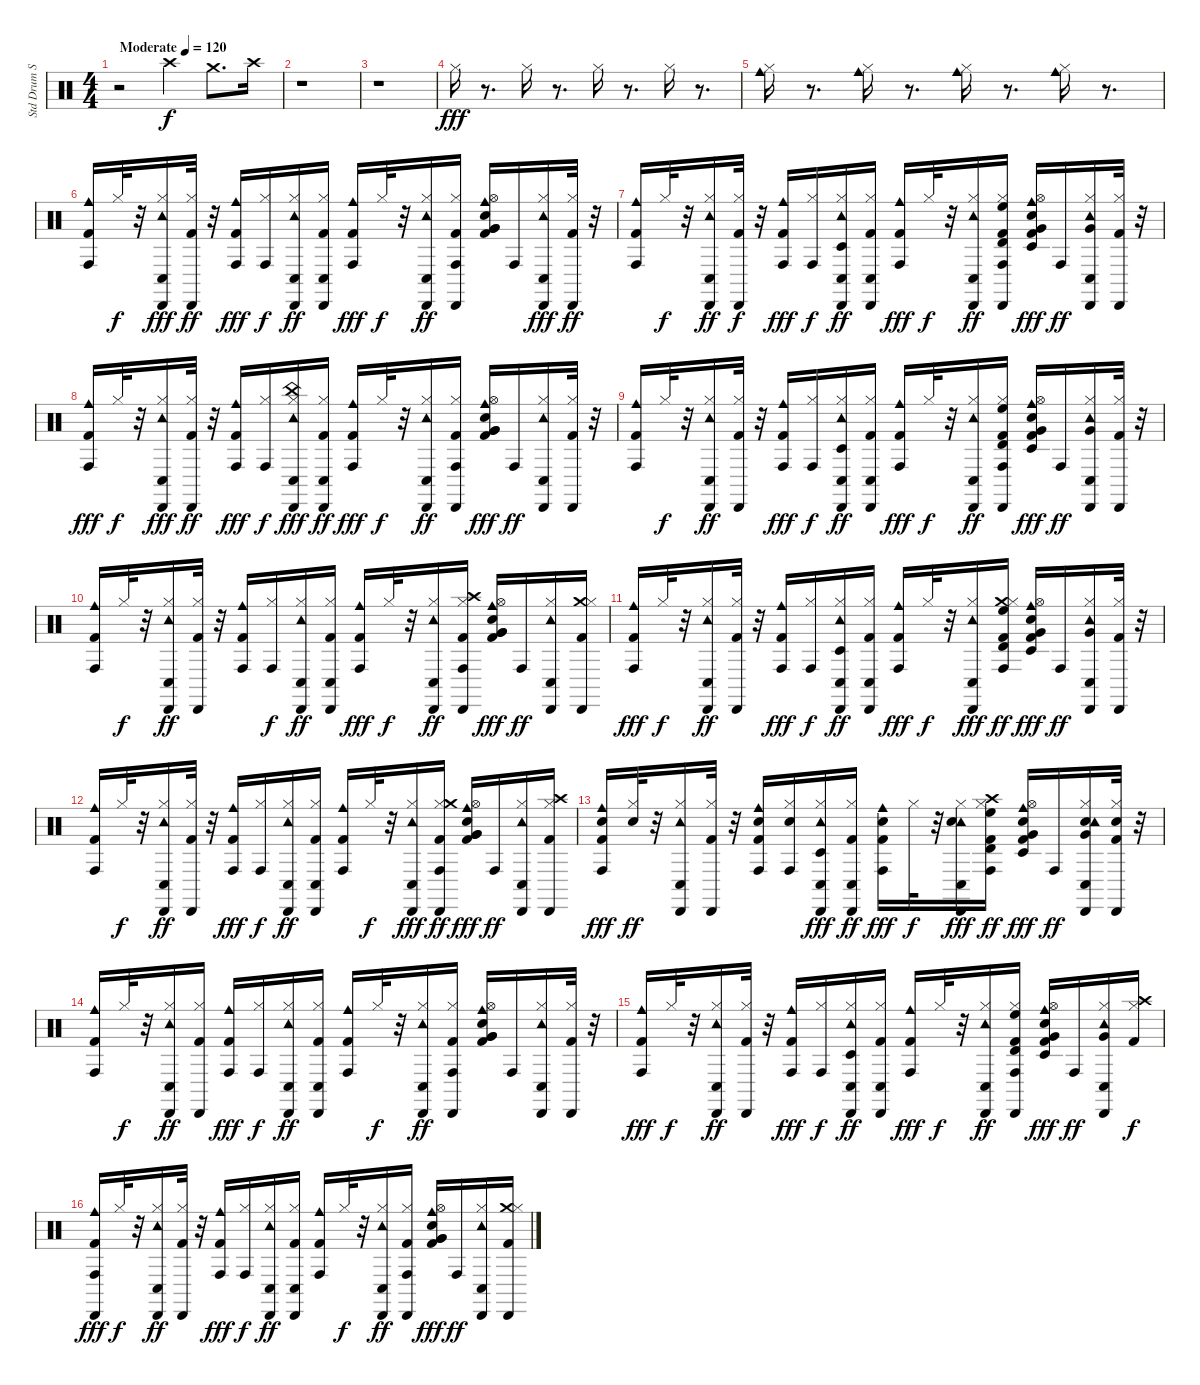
\track ("Std Drum Set" "Std Drum S") {instrument percussion}
\staff {score}
\articulation defaults
\ts (4 4)
\tempo (120 "Moderate")
\clef neutral
\ks c
r.2{dy f} "Crash high (hit)".4 "Crash medium (hit)".8{d} "Crash high (hit)".16 |
r.1 |
r.1 |
"Hi-Hat (closed)".16{dy fff} r.8{d} "Hi-Hat (closed)".16 r.8{d} "Hi-Hat (closed)".16 r.8{d} "Hi-Hat (closed)".16 r.8{d} |
("Hi-Hat (closed)" "Cowbell medium (hit)").16 r.8{d} ("Cowbell medium (hit)" "Hi-Hat (closed)").16 r.8{d} ("Hi-Hat (closed)" "Cowbell medium (hit)").16 r.8{d} ("Cowbell medium (hit)" "Hi-Hat (closed)").16 r.8{d} |
("Cowbell medium (hit)" "Conga high (hit)" "Kick (hit) 2").16 "Hi-Hat (closed)".32{dy f} r.32 ("Hi-Hat (closed)" "Tambourine (hit)" "Conga low (hit)" "Cabasa (hit)").16{dy fff} ("Hi-Hat (closed)" "Kick (hit) 2" "Cabasa (hit)").32{dy ff} r.32 ("Cowbell medium (hit)" "Conga high (hit)" "Kick (hit) 2").16{dy fff} ("Hi-Hat (closed)" "Conga high (hit)").16{dy f} ("Conga low (hit)" "Cabasa (hit)" "Hi-Hat (closed)" "Tambourine (hit)").16{dy ff} ("Conga low (hit)" "Cabasa (hit)" "Hi-Hat (closed)" "Kick (hit) 2").16 ("Kick (hit) 2" "Conga high (hit)" "Cowbell medium (hit)").16{dy fff} "Hi-Hat (closed)".32{dy f} r.32 ("Hi-Hat (closed)" "Conga low (hit)" "Tambourine (hit)" "Cabasa (hit)").16{dy ff} ("Hi-Hat (closed)" "Kick (hit) 2" "Cabasa (hit)" "Conga high (hit)").16 ("Very Low Tom (hit)" "Very Low Tom (hit)" "Hi-Hat (open)" "Kick (hit) 2" "Cowbell medium (hit)" "Electric Snare (hit)").16 "Conga high (hit)".16 ("Hi-Hat (closed)" "Conga low (hit)" "Cabasa (hit)" "Tambourine (hit)").16{dy fff} ("Kick (hit) 2" "Hi-Hat (closed)" "Cabasa (hit)").32{dy ff} r.32 |
("Cowbell medium (hit)" "Kick (hit) 2" "Conga high (hit)").16 "Hi-Hat (closed)".32{dy f} r.32 ("Conga low (hit)" "Cabasa (hit)" "Hi-Hat (closed)" "Tambourine (hit)").16{dy ff} ("Kick (hit) 2" "Hi-Hat (closed)" "Cabasa (hit)").32{dy f} r.32 ("Conga high (hit)" "Cowbell medium (hit)" "Kick (hit) 2").16{dy fff} ("Hi-Hat (closed)" "Conga high (hit)").16{dy f} ("Tambourine (hit)" "Cabasa (hit)" "Conga low (hit)" "Timbale low (hit)" "Hi-Hat (closed)").16{dy ff} ("Hi-Hat (closed)" "Kick (hit) 2" "Conga low (hit)" "Cabasa (hit)").16 ("Conga high (hit)" "Cowbell medium (hit)" "Kick (hit) 2").16{dy fff} "Hi-Hat (closed)".32{dy f} r.32 ("Hi-Hat (closed)" "Cabasa (hit)" "Conga low (hit)" "Tambourine (hit)").16{dy ff} ("Conga high (hit)" "Timbale high (hit)" "High Floor Tom (hit)" "Hi-Hat (closed)" "Kick (hit) 2" "Cabasa (hit)").16 ("Kick (hit) 2" "Hi-Hat (open)" "Cowbell medium (hit)" "Timbale low (hit)" "Electric Snare (hit)" "Very Low Tom (hit)").16{dy fff} "Conga high (hit)".16{dy ff} ("Tambourine (hit)" "Conga low (hit)" "Cabasa (hit)" "Hi-Hat (closed)" "Very Low Tom (hit)").16 ("Hi-Hat (closed)" "Cabasa (hit)" "Kick (hit) 2").32 r.32 |
("Cowbell medium (hit)" "Conga high (hit)" "Kick (hit) 2").16{dy fff} "Hi-Hat (closed)".32{dy f} r.32 ("Hi-Hat (closed)" "Tambourine (hit)" "Conga low (hit)" "Cabasa (hit)").16{dy fff} ("Kick (hit) 2" "Hi-Hat (closed)" "Cabasa (hit)").32{dy ff} r.32 ("Conga high (hit)" "Cowbell medium (hit)" "Kick (hit) 2").16{dy fff} ("Conga high (hit)" "Hi-Hat (closed)").16{dy f} ("Tambourine (hit)" "Hi-Hat (closed)" "Conga low (hit)" "Cabasa (hit)" "China (hit)").16{dy fff} ("Hi-Hat (closed)" "Kick (hit) 2" "Cabasa (hit)" "Conga low (hit)").16{dy ff} ("Kick (hit) 2" "Conga high (hit)" "Cowbell medium (hit)").16{dy fff} "Hi-Hat (closed)".32{dy f} r.32 ("Conga low (hit)" "Cabasa (hit)" "Hi-Hat (closed)" "Tambourine (hit)").16{dy ff} ("Cabasa (hit)" "Conga high (hit)" "Kick (hit) 2" "Hi-Hat (closed)").16 ("Kick (hit) 2" "Very Low Tom (hit)" "Cowbell medium (hit)" "Hi-Hat (open)" "Very Low Tom (hit)" "Electric Snare (hit)").16{dy fff} "Conga high (hit)".16{dy ff} ("Hi-Hat (closed)" "Conga low (hit)" "Cabasa (hit)" "Tambourine (hit)").16 ("Hi-Hat (closed)" "Kick (hit) 2" "Cabasa (hit)").32 r.32 |
("Cowbell medium (hit)" "Kick (hit) 2" "Conga high (hit)").16 "Hi-Hat (closed)".32{dy f} r.32 ("Tambourine (hit)" "Conga low (hit)" "Cabasa (hit)" "Hi-Hat (closed)").16{dy ff} ("Hi-Hat (closed)" "Cabasa (hit)" "Kick (hit) 2").32 r.32 ("Conga high (hit)" "Kick (hit) 2" "Cowbell medium (hit)").16{dy fff} ("Conga high (hit)" "Hi-Hat (closed)").16{dy f} ("Cabasa (hit)" "Hi-Hat (closed)" "Conga low (hit)" "Timbale low (hit)" "Tambourine (hit)").16{dy ff} ("Conga low (hit)" "Kick (hit) 2" "Hi-Hat (closed)" "Cabasa (hit)").16 ("Conga high (hit)" "Kick (hit) 2" "Cowbell medium (hit)").16{dy fff} "Hi-Hat (closed)".32{dy f} r.32 ("Tambourine (hit)" "Conga low (hit)" "Cabasa (hit)" "Hi-Hat (closed)").16{dy ff} ("Conga high (hit)" "Timbale high (hit)" "Kick (hit) 2" "Hi-Hat (closed)" "High Floor Tom (hit)" "Cabasa (hit)").16 ("Cowbell medium (hit)" "Hi-Hat (open)" "Kick (hit) 2" "Electric Snare (hit)" "Timbale low (hit)" "Very Low Tom (hit)").16{dy fff} "Conga high (hit)".16{dy ff} ("Cabasa (hit)" "Hi-Hat (closed)" "Conga low (hit)" "Very Low Tom (hit)" "Tambourine (hit)").16 ("Cabasa (hit)" "Kick (hit) 2" "Hi-Hat (closed)").32 r.32 |
("Cowbell medium (hit)" "Kick (hit) 2" "Conga high (hit)").16 "Hi-Hat (closed)".32{dy f} r.32 ("Tambourine (hit)" "Hi-Hat (closed)" "Cabasa (hit)" "Conga low (hit)").16{dy ff} ("Cabasa (hit)" "Hi-Hat (closed)" "Kick (hit) 2").32 r.32 ("Cowbell medium (hit)" "Kick (hit) 2" "Conga high (hit)").16 ("Hi-Hat (closed)" "Conga high (hit)").16{dy f} ("Conga low (hit)" "Cabasa (hit)" "Hi-Hat (closed)" "Tambourine (hit)").16{dy ff} ("Kick (hit) 2" "Cabasa (hit)" "Hi-Hat (closed)" "Conga low (hit)").16 ("Cowbell medium (hit)" "Conga high (hit)" "Kick (hit) 2").16{dy fff} "Hi-Hat (closed)".32{dy f} r.32 ("Hi-Hat (closed)" "Conga low (hit)" "Tambourine (hit)" "Cabasa (hit)").16{dy ff} ("Hi-Hat (closed)" "Conga high (hit)" "Cabasa (hit)" "Crash high (hit)" "Kick (hit) 2").16 ("Kick (hit) 2" "Cowbell medium (hit)" "Very Low Tom (hit)" "Hi-Hat (open)" "Very Low Tom (hit)" "Electric Snare (hit)").16{dy fff} "Conga high (hit)".16{dy ff} ("Tambourine (hit)" "Conga low (hit)" "Hi-Hat (closed)" "Cabasa (hit)").16 ("Kick (hit) 2" "Crash medium (hit)" "Hi-Hat (closed)" "Cabasa (hit)").16 |
("Conga high (hit)" "Kick (hit) 2" "Cowbell medium (hit)").16{dy fff} "Hi-Hat (closed)".32{dy f} r.32 ("Tambourine (hit)" "Cabasa (hit)" "Hi-Hat (closed)" "Conga low (hit)").16{dy ff} ("Hi-Hat (closed)" "Kick (hit) 2" "Cabasa (hit)").32 r.32 ("Cowbell medium (hit)" "Conga high (hit)" "Kick (hit) 2").16{dy fff} ("Hi-Hat (closed)" "Conga high (hit)").16{dy f} ("Hi-Hat (closed)" "Cabasa (hit)" "Tambourine (hit)" "Timbale low (hit)" "Conga low (hit)").16{dy ff} ("Conga low (hit)" "Kick (hit) 2" "Hi-Hat (closed)" "Cabasa (hit)").16 ("Conga high (hit)" "Cowbell medium (hit)" "Kick (hit) 2").16{dy fff} "Hi-Hat (closed)".32{dy f} r.32 ("Hi-Hat (closed)" "Tambourine (hit)" "Conga low (hit)" "Cabasa (hit)").16{dy fff} ("Timbale high (hit)" "High Floor Tom (hit)" "Crash medium (hit)" "Conga high (hit)" "Hi-Hat (closed)" "Kick (hit) 2").16{dy ff} ("Hi-Hat (open)" "Cowbell medium (hit)" "Kick (hit) 2" "Very Low Tom (hit)" "Timbale low (hit)" "Electric Snare (hit)").16{dy fff} "Conga high (hit)".16{dy ff} ("Cabasa (hit)" "Very Low Tom (hit)" "Conga low (hit)" "Hi-Hat (closed)" "Tambourine (hit)").16 ("Kick (hit) 2" "Cabasa (hit)" "Hi-Hat (closed)").32 r.32 |
("Cowbell medium (hit)" "Kick (hit) 2" "Conga high (hit)").16 "Hi-Hat (closed)".32{dy f} r.32 ("Tambourine (hit)" "Conga low (hit)" "Hi-Hat (closed)" "Cabasa (hit)").16{dy ff} ("Cabasa (hit)" "Kick (hit) 2" "Hi-Hat (closed)").32 r.32 ("Kick (hit) 2" "Conga high (hit)" "Cowbell medium (hit)").16{dy fff} ("Conga high (hit)" "Hi-Hat (closed)").16{dy f} ("Tambourine (hit)" "Cabasa (hit)" "Hi-Hat (closed)" "Conga low (hit)").16{dy ff} ("Cabasa (hit)" "Conga low (hit)" "Kick (hit) 2" "Hi-Hat (closed)").16 ("Cowbell medium (hit)" "Kick (hit) 2" "Conga high (hit)").16 "Hi-Hat (closed)".32{dy f} r.32 ("Hi-Hat (closed)" "Tambourine (hit)" "Conga low (hit)" "Cabasa (hit)").16{dy fff} ("Cabasa (hit)" "Conga high (hit)" "Kick (hit) 2" "Hi-Hat (closed)" "Crash medium (hit)").16{dy ff} ("Cowbell medium (hit)" "Hi-Hat (open)" "Electric Snare (hit)" "Very Low Tom (hit)" "Kick (hit) 2" "Very Low Tom (hit)").16{dy fff} "Conga high (hit)".16{dy ff} ("Cabasa (hit)" "Tambourine (hit)" "Conga low (hit)" "Hi-Hat (closed)").16 ("Hi-Hat (closed)" "Cabasa (hit)" "Crash high (hit)" "Kick (hit) 2").16 |
("Conga high (hit)" "Cowbell medium (hit)" "Electric Snare (hit)" "Kick (hit) 2").16{dy fff} ("Electric Snare (hit)" "Hi-Hat (closed)").32{dy ff} r.32 ("Hi-Hat (closed)" "Conga low (hit)" "Cabasa (hit)" "Tambourine (hit)").16 ("Hi-Hat (closed)" "Kick (hit) 2" "Cabasa (hit)").32 r.32 ("Kick (hit) 2" "Cowbell medium (hit)" "Electric Snare (hit)" "Conga high (hit)").16 ("Conga high (hit)" "Electric Snare (hit)" "Hi-Hat (closed)").16 ("Hi-Hat (closed)" "Timbale low (hit)" "Conga low (hit)" "Tambourine (hit)" "Cabasa (hit)").16{dy fff} ("Hi-Hat (closed)" "Conga low (hit)" "Kick (hit) 2" "Cabasa (hit)").16{dy ff} ("Conga high (hit)" "Cowbell medium (hit)" "Kick (hit) 2" "Electric Snare (hit)").16{dy fff} "Hi-Hat (closed)".32{dy f} r.32 ("Tambourine (hit)" "Conga low (hit)" "Hi-Hat (closed)" "Electric Snare (hit)" "Cabasa (hit)").16{dy fff} ("High Floor Tom (hit)" "Timbale high (hit)" "Crash high (hit)" "Hi-Hat (closed)" "Kick (hit) 2" "Conga high (hit)").16{dy ff} ("Cowbell medium (hit)" "Kick (hit) 2" "Hi-Hat (open)" "Very Low Tom (hit)" "Timbale low (hit)" "Electric Snare (hit)").16{dy fff} "Conga high (hit)".16{dy ff} ("Hi-Hat (closed)" "Conga low (hit)" "Electric Snare (hit)" "Cabasa (hit)" "Very Low Tom (hit)" "Tambourine (hit)").16 ("Cabasa (hit)" "Electric Snare (hit)" "Kick (hit) 2" "Hi-Hat (closed)").32 r.32 |
("Kick (hit) 2" "Cowbell medium (hit)" "Conga high (hit)").16 "Hi-Hat (closed)".32{dy f} r.32 ("Cabasa (hit)" "Conga low (hit)" "Hi-Hat (closed)" "Tambourine (hit)").16{dy ff} ("Kick (hit) 2" "Hi-Hat (closed)" "Cabasa (hit)").16 ("Conga high (hit)" "Cowbell medium (hit)" "Kick (hit) 2").16{dy fff} ("Hi-Hat (closed)" "Conga high (hit)").16{dy f} ("Cabasa (hit)" "Conga low (hit)" "Tambourine (hit)" "Hi-Hat (closed)").16{dy ff} ("Cabasa (hit)" "Kick (hit) 2" "Hi-Hat (closed)" "Conga low (hit)").16 ("Cowbell medium (hit)" "Kick (hit) 2" "Conga high (hit)").16 "Hi-Hat (closed)".32{dy f} r.32 ("Tambourine (hit)" "Cabasa (hit)" "Hi-Hat (closed)" "Conga low (hit)").16{dy ff} ("Hi-Hat (closed)" "Kick (hit) 2" "Cabasa (hit)" "Conga high (hit)").16 ("Very Low Tom (hit)" "Kick (hit) 2" "Cowbell medium (hit)" "Very Low Tom (hit)" "Electric Snare (hit)" "Hi-Hat (open)").16 "Conga high (hit)".16 ("Hi-Hat (closed)" "Cabasa (hit)" "Tambourine (hit)" "Conga low (hit)").16 ("Cabasa (hit)" "Hi-Hat (closed)" "Kick (hit) 2").32 r.32 |
("Conga high (hit)" "Kick (hit) 2" "Cowbell medium (hit)").16{dy fff} "Hi-Hat (closed)".32{dy f} r.32 ("Conga low (hit)" "Cabasa (hit)" "Tambourine (hit)" "Hi-Hat (closed)").16{dy ff} ("Kick (hit) 2" "Cabasa (hit)" "Hi-Hat (closed)").32 r.32 ("Kick (hit) 2" "Conga high (hit)" "Cowbell medium (hit)").16{dy fff} ("Hi-Hat (closed)" "Conga high (hit)").16{dy f} ("Conga low (hit)" "Tambourine (hit)" "Timbale low (hit)" "Cabasa (hit)" "Hi-Hat (closed)").16{dy ff} ("Conga low (hit)" "Kick (hit) 2" "Cabasa (hit)" "Hi-Hat (closed)").16 ("Kick (hit) 2" "Conga high (hit)" "Cowbell medium (hit)").16{dy fff} "Hi-Hat (closed)".32{dy f} r.32 ("Tambourine (hit)" "Conga low (hit)" "Cabasa (hit)" "Hi-Hat (closed)").16{dy ff} ("Cabasa (hit)" "Conga high (hit)" "High Floor Tom (hit)" "Kick (hit) 2" "Hi-Hat (closed)" "Timbale high (hit)").16 ("Timbale low (hit)" "Electric Snare (hit)" "Kick (hit) 2" "Hi-Hat (open)" "Very Low Tom (hit)" "Cowbell medium (hit)").16{dy fff} "Conga high (hit)".16{dy ff} ("Conga low (hit)" "Cabasa (hit)" "Hi-Hat (closed)" "Very Low Tom (hit)" "Tambourine (hit)").16 ("Hi-Hat (closed)" "Kick (hit) 2" "Crash high (hit)").16{dy f} |
("Kick (hit) 2" "Conga high (hit)" "Cabasa (hit)" "Cowbell medium (hit)").16{dy fff} "Hi-Hat (closed)".32{dy f} r.32 ("Cabasa (hit)" "Hi-Hat (closed)" "Tambourine (hit)" "Conga low (hit)").16{dy ff} ("Hi-Hat (closed)" "Cabasa (hit)" "Kick (hit) 2").32 r.32 ("Kick (hit) 2" "Conga high (hit)" "Cowbell medium (hit)").16{dy fff} ("Conga high (hit)" "Hi-Hat (closed)").16{dy f} ("Conga low (hit)" "Tambourine (hit)" "Cabasa (hit)" "Hi-Hat (closed)").16{dy ff} ("Kick (hit) 2" "Conga low (hit)" "Cabasa (hit)" "Hi-Hat (closed)").16 ("Cowbell medium (hit)" "Kick (hit) 2" "Conga high (hit)").16 "Hi-Hat (closed)".32{dy f} r.32 ("Conga low (hit)" "Tambourine (hit)" "Cabasa (hit)" "Hi-Hat (closed)").16{dy ff} ("Conga high (hit)" "Cabasa (hit)" "Kick (hit) 2" "Hi-Hat (closed)").16 ("Electric Snare (hit)" "Hi-Hat (open)" "Cowbell medium (hit)" "Kick (hit) 2" "Very Low Tom (hit)" "Very Low Tom (hit)").16{dy fff} "Conga high (hit)".16{dy ff} ("Cabasa (hit)" "Conga low (hit)" "Hi-Hat (closed)" "Tambourine (hit)").16 ("Kick (hit) 2" "Crash medium (hit)" "Hi-Hat (closed)" "Cabasa (hit)").16
